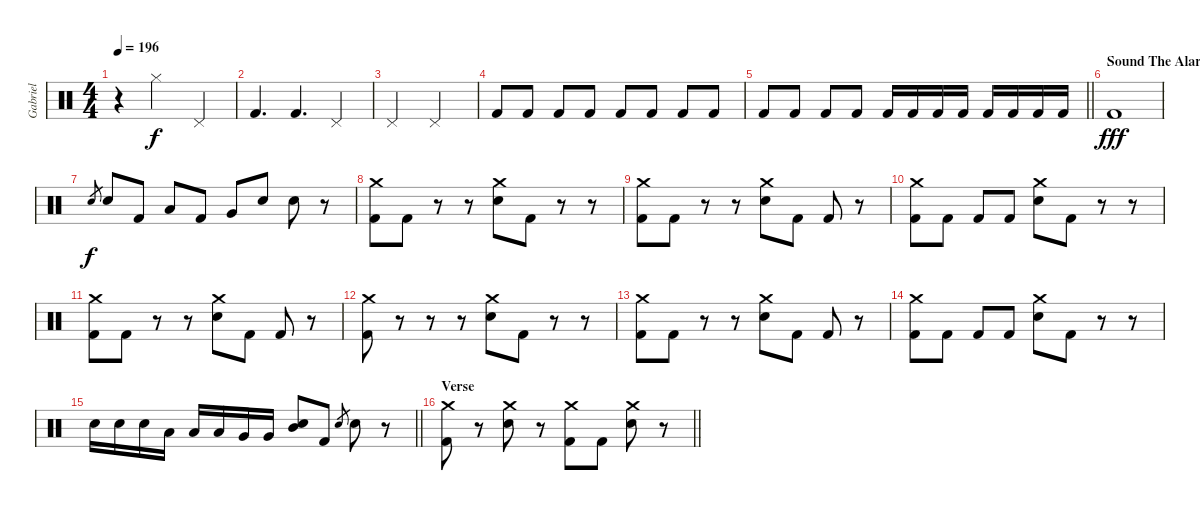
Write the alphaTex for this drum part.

\track ("Gabriel" "Gabriel") {instrument percussion}
\staff {score}
\articulation defaults
\ts (4 4)
\tempo 196
\clef neutral
\ks aminor
r.4{dy mp} "Hi-Hat (closed)".2{dy f} "Pedal Hi-Hat (hit)".4 |
"Kick (hit) 2".4{d} "Kick (hit) 2".4{d} "Pedal Hi-Hat (hit)".4 |
"Pedal Hi-Hat (hit)".2 "Pedal Hi-Hat (hit)".2 |
"Kick (hit) 2".8 "Kick (hit) 2".8 "Kick (hit) 2".8 "Kick (hit) 2".8 "Kick (hit) 2".8 "Kick (hit) 2".8 "Kick (hit) 2".8 "Kick (hit) 2".8 |
\barLineRight lightlight "Kick (hit) 2".8 "Kick (hit) 2".8 "Kick (hit) 2".8 "Kick (hit) 2".8 "Kick (hit) 2".16 "Kick (hit) 2".16 "Kick (hit) 2".16 "Kick (hit) 2".16 "Kick (hit) 2".16 "Kick (hit) 2".16 "Kick (hit) 2".16 "Kick (hit) 2".16
|
\section ("" "Sound The Alarm Intro")
\ks c "Kick (hit) 2".1{dy fff}
|
"Electric Snare (hit)".8{gr dy f} "Electric Snare (hit)".8 "Kick (hit) 2".8 "Low Tom (hit)".8 "Kick (hit) 2".8 "Very Low Tom (hit)".8 "Electric Snare (hit)".8 "Electric Snare (hit)".8 r.8 |
("Crash medium (hit)" "Kick (hit) 2").8 "Kick (hit) 2".8 r.8 r.8 ("Crash medium (hit)" "Electric Snare (hit)").8 "Kick (hit) 2".8 r.8 r.8 |
("Crash medium (hit)" "Kick (hit) 2").8 "Kick (hit) 2".8 r.8 r.8 ("Crash medium (hit)" "Electric Snare (hit)").8 "Kick (hit) 2".8 "Kick (hit) 2".8 r.8 |
("Crash medium (hit)" "Kick (hit) 2").8 "Kick (hit) 2".8 "Kick (hit) 2".8 "Kick (hit) 2".8 ("Crash medium (hit)" "Electric Snare (hit)").8 "Kick (hit) 2".8 r.8 r.8 |
("Crash medium (hit)" "Kick (hit) 2").8 "Kick (hit) 2".8 r.8 r.8 ("Crash medium (hit)" "Electric Snare (hit)").8 "Kick (hit) 2".8 "Kick (hit) 2".8 r.8 |
("Crash medium (hit)" "Kick (hit) 2").8 r.8 r.8 r.8 ("Crash medium (hit)" "Electric Snare (hit)").8 "Kick (hit) 2".8 r.8 r.8 |
("Crash medium (hit)" "Kick (hit) 2").8 "Kick (hit) 2".8 r.8 r.8 ("Crash medium (hit)" "Electric Snare (hit)").8 "Kick (hit) 2".8 "Kick (hit) 2".8 r.8 |
("Crash medium (hit)" "Kick (hit) 2").8 "Kick (hit) 2".8 "Kick (hit) 2".8 "Kick (hit) 2".8 ("Crash medium (hit)" "Electric Snare (hit)").8 "Kick (hit) 2".8 r.8 r.8 |
\barLineRight lightlight "Electric Snare (hit)".16 "Electric Snare (hit)".16 "Electric Snare (hit)".16 "Low Tom (hit)".16 "Low Tom (hit)".16 "Low Tom (hit)".16 "Very Low Tom (hit)".16 "Very Low Tom (hit)".16
("Mid Tom (hit)" "Electric Snare (hit)").8 "Kick (hit) 2".8 "Electric Snare (hit)".8{gr} "Electric Snare (hit)".8 r.8 |
\section ("" "Verse ")
\barLineRight lightlight
("Crash medium (hit)" "Kick (hit) 2").8 r.8 ("Crash medium (hit)" "Electric Snare (hit)").8 r.8 ("Crash medium (hit)" "Kick (hit) 2").8 "Kick (hit) 2".8 ("Crash medium (hit)" "Electric Snare (hit)").8 r.8
